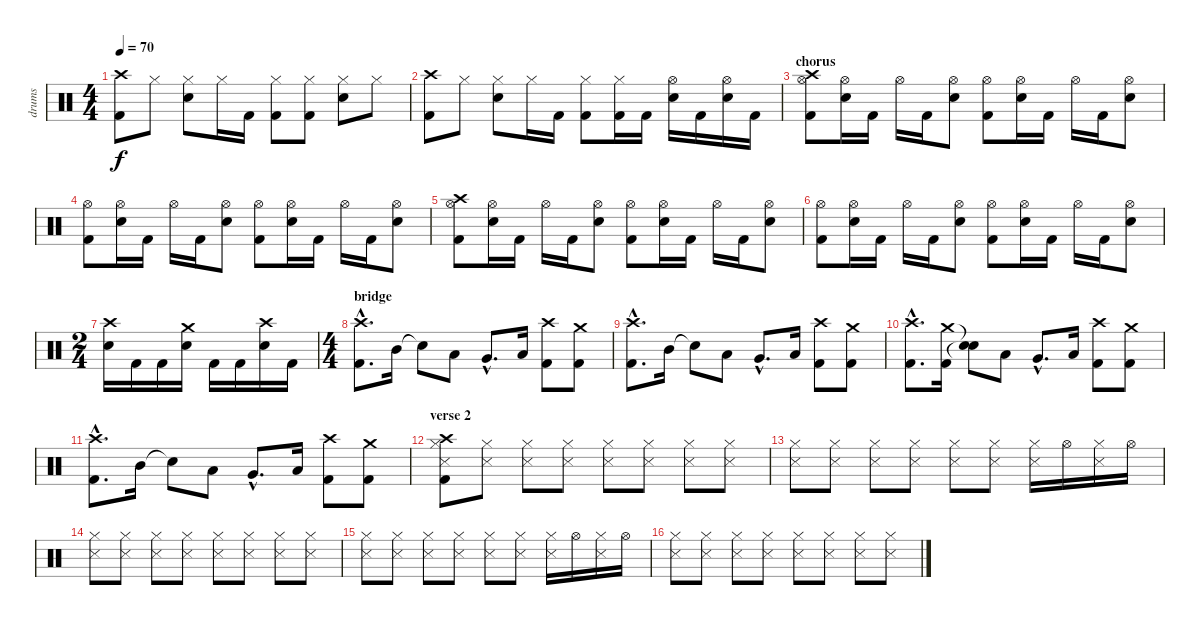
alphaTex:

\track ("drums" "drums") {instrument percussion}
\staff {score}
\articulation defaults
\ts (4 4)
\tempo 70
\clef neutral
\ks c
("Crash high (hit)" "Kick (hit) 2").8{dy f} "Hi-Hat (closed)".8 ("Hi-Hat (closed)" "Snare (hit) 2").8 "Hi-Hat (closed)".16 "Kick (hit) 2".16 ("Hi-Hat (closed)" "Kick (hit) 2").8 ("Hi-Hat (closed)" "Kick (hit) 2").8 ("Hi-Hat (closed)" "Snare (hit) 2").8 "Hi-Hat (closed)".8 |
("Crash high (hit)" "Kick (hit) 2").8 "Hi-Hat (closed)".8 ("Hi-Hat (closed)" "Snare (hit) 2").8 "Hi-Hat (closed)".16 "Kick (hit) 2".16 ("Hi-Hat (closed)" "Kick (hit) 2").8 ("Hi-Hat (closed)" "Kick (hit) 2").16 "Kick (hit) 2".16 ("Hi-Hat (open)" "Snare (hit) 2").16 "Kick (hit) 2".16 ("Hi-Hat (open)" "Snare (hit) 2").16 "Kick (hit) 2".16 |
\section ("" "chorus")
("Crash high (hit)" "Hi-Hat (open)" "Kick (hit) 2").8 ("Hi-Hat (open)" "Snare (hit) 2").16 "Kick (hit) 2".16 "Hi-Hat (open)".16 "Kick (hit) 2".16 ("Hi-Hat (open)" "Snare (hit) 2").8 ("Hi-Hat (open)" "Kick (hit) 2").8 ("Hi-Hat (open)" "Snare (hit) 2").16 "Kick (hit) 2".16 "Hi-Hat (open)".16 "Kick (hit) 2".16 ("Hi-Hat (open)" "Snare (hit) 2").8 |
("Hi-Hat (open)" "Kick (hit) 2").8 ("Hi-Hat (open)" "Snare (hit) 2").16 "Kick (hit) 2".16 "Hi-Hat (open)".16 "Kick (hit) 2".16 ("Hi-Hat (open)" "Snare (hit) 2").8 ("Hi-Hat (open)" "Kick (hit) 2").8 ("Hi-Hat (open)" "Snare (hit) 2").16 "Kick (hit) 2".16 "Hi-Hat (open)".16 "Kick (hit) 2".16 ("Hi-Hat (open)" "Snare (hit) 2").8 |
("Crash high (hit)" "Hi-Hat (open)" "Kick (hit) 2").8 ("Hi-Hat (open)" "Snare (hit) 2").16 "Kick (hit) 2".16 "Hi-Hat (open)".16 "Kick (hit) 2".16 ("Hi-Hat (open)" "Snare (hit) 2").8 ("Hi-Hat (open)" "Kick (hit) 2").8 ("Hi-Hat (open)" "Snare (hit) 2").16 "Kick (hit) 2".16 "Hi-Hat (open)".16 "Kick (hit) 2".16 ("Hi-Hat (open)" "Snare (hit) 2").8 |
("Hi-Hat (open)" "Kick (hit) 2").8 ("Hi-Hat (open)" "Snare (hit) 2").16 "Kick (hit) 2".16 "Hi-Hat (open)".16 "Kick (hit) 2".16 ("Hi-Hat (open)" "Snare (hit) 2").8 ("Hi-Hat (open)" "Kick (hit) 2").8 ("Hi-Hat (open)" "Snare (hit) 2").16 "Kick (hit) 2".16 "Hi-Hat (open)".16 "Kick (hit) 2".16 ("Hi-Hat (open)" "Snare (hit) 2").8 |
\ts (2 4)
("Crash high (hit)" "Snare (hit) 2").16 "Kick (hit) 2".16 "Kick (hit) 2".16 ("Crash medium (hit)" "Snare (hit) 2").16 "Kick (hit) 2".16 "Kick (hit) 2".16 ("Crash high (hit)" "Snare (hit) 2").16 "Kick (hit) 2".16 |
\ts (4 4)
\section ("" "bridge")
("Crash high (hit)"{hac} "Kick (hit) 2"{hac}).8{d} "Mid Tom (hit)".16 "Snare (hit)"{t}.8 "Low Tom (hit)".8 "Very Low Tom (hit)"{hac}.8{d} "Low Floor Tom (hit)".16 ("Crash high (hit)" "Kick (hit) 2").8 ("Crash medium (hit)" "Kick (hit) 2").8 |
("Crash high (hit)"{hac} "Kick (hit) 2"{hac}).8{d} "Mid Tom (hit)".16 "Snare (hit)"{t}.8 "Low Tom (hit)".8 "Very Low Tom (hit)"{hac}.8{d} "Low Floor Tom (hit)".16 ("Crash high (hit)" "Kick (hit) 2").8 ("Crash medium (hit)" "Kick (hit) 2").8 |
("Crash high (hit)"{hac} "Kick (hit) 2"{hac}).8{d} ("Crash medium (hit)" "Kick (hit) 2").16 ("Snare (hit)"{t} "Snare (hit)"{t}).8 "Low Tom (hit)".8 "Very Low Tom (hit)"{hac}.8{d} "Low Floor Tom (hit)".16 ("Crash high (hit)" "Kick (hit) 2").8 ("Crash medium (hit)" "Kick (hit) 2").8 |
("Crash high (hit)"{hac} "Kick (hit) 2"{hac}).8{d} "Mid Tom (hit)".16 "Snare (hit)"{t}.8 "Low Tom (hit)".8 "Very Low Tom (hit)"{hac}.8{d} "Low Floor Tom (hit)".16 ("Crash high (hit)" "Kick (hit) 2").8 ("Crash medium (hit)" "Kick (hit) 2").8 |
\section ("" "verse 2")
("Crash high (hit)" "Snare (side stick) 3" "Hi-Hat (closed)" "Kick (hit) 2").8 ("Snare (side stick) 3" "Hi-Hat (closed)").8 ("Snare (side stick) 3" "Hi-Hat (closed)").8 ("Snare (side stick) 3" "Hi-Hat (closed)").8 ("Snare (side stick) 3" "Hi-Hat (closed)").8 ("Snare (side stick) 3" "Hi-Hat (closed)").8 ("Snare (side stick) 3" "Hi-Hat (closed)").8 ("Snare (side stick) 3" "Hi-Hat (closed)").8 |
("Snare (side stick) 3" "Hi-Hat (closed)").8 ("Snare (side stick) 3" "Hi-Hat (closed)").8 ("Snare (side stick) 3" "Hi-Hat (closed)").8 ("Snare (side stick) 3" "Hi-Hat (closed)").8 ("Snare (side stick) 3" "Hi-Hat (closed)").8 ("Snare (side stick) 3" "Hi-Hat (closed)").8 ("Snare (side stick) 3" "Hi-Hat (closed)").16 "Hi-Hat (open)".16 ("Snare (side stick) 3" "Hi-Hat (closed)").16 "Hi-Hat (open)".16 |
("Snare (side stick) 3" "Hi-Hat (closed)").8 ("Snare (side stick) 3" "Hi-Hat (closed)").8 ("Snare (side stick) 3" "Hi-Hat (closed)").8 ("Snare (side stick) 3" "Hi-Hat (closed)").8 ("Snare (side stick) 3" "Hi-Hat (closed)").8 ("Snare (side stick) 3" "Hi-Hat (closed)").8 ("Snare (side stick) 3" "Hi-Hat (closed)").8 ("Snare (side stick) 3" "Hi-Hat (closed)").8 |
("Snare (side stick) 3" "Hi-Hat (closed)").8 ("Snare (side stick) 3" "Hi-Hat (closed)").8 ("Snare (side stick) 3" "Hi-Hat (closed)").8 ("Snare (side stick) 3" "Hi-Hat (closed)").8 ("Snare (side stick) 3" "Hi-Hat (closed)").8 ("Snare (side stick) 3" "Hi-Hat (closed)").8 ("Snare (side stick) 3" "Hi-Hat (closed)").16 "Hi-Hat (open)".16 ("Snare (side stick) 3" "Hi-Hat (closed)").16 "Hi-Hat (open)".16 |
("Snare (side stick) 3" "Hi-Hat (closed)").8 ("Snare (side stick) 3" "Hi-Hat (closed)").8 ("Snare (side stick) 3" "Hi-Hat (closed)").8 ("Snare (side stick) 3" "Hi-Hat (closed)").8 ("Snare (side stick) 3" "Hi-Hat (closed)").8 ("Snare (side stick) 3" "Hi-Hat (closed)").8 ("Snare (side stick) 3" "Hi-Hat (closed)").8 ("Snare (side stick) 3" "Hi-Hat (closed)").8
